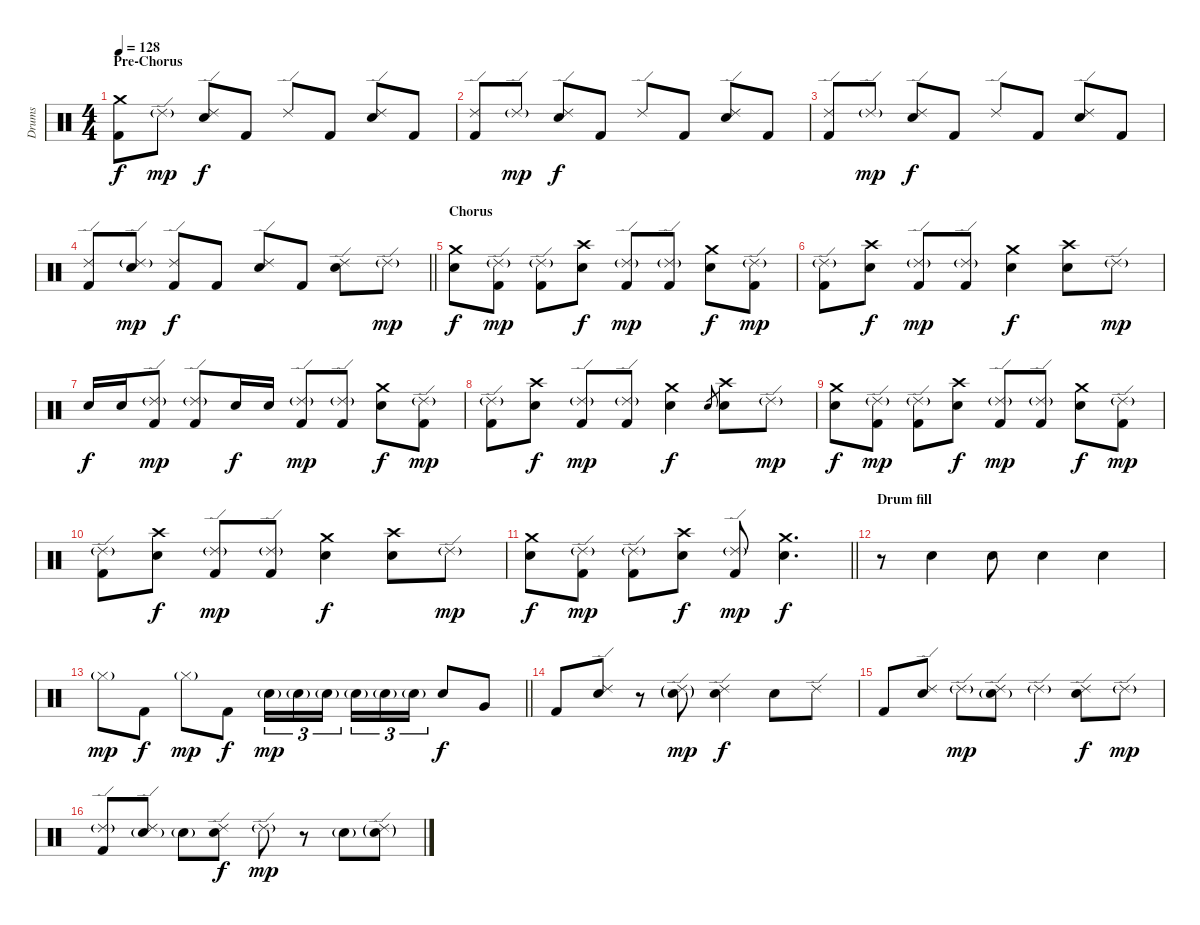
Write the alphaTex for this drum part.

\track ("Drums" "Drums") {instrument percussion}
\staff {score}
\articulation defaults
\ts (4 4)
\section ("" "Pre-Chorus")
\tempo 128
\clef neutral
\ks c
("Crash medium (hit)" "Kick (hit) 2").8{dy f} "Ride (edge) 2"{g}.8{dy mp} ("Ride (edge) 2" "Snare (hit) 2").8{dy f} "Kick (hit) 2".8 "Ride (edge) 2".8 "Kick (hit) 2".8 ("Ride (edge) 2" "Snare (hit) 2").8 "Kick (hit) 2".8 |
("Ride (edge) 2" "Kick (hit) 2").8 "Ride (edge) 2"{g}.8{dy mp} ("Ride (edge) 2" "Snare (hit) 2").8{dy f} "Kick (hit) 2".8 "Ride (edge) 2".8 "Kick (hit) 2".8 ("Ride (edge) 2" "Snare (hit) 2").8 "Kick (hit) 2".8 |
("Ride (edge) 2" "Kick (hit) 2").8 "Ride (edge) 2"{g}.8{dy mp} ("Ride (edge) 2" "Snare (hit) 2").8{dy f} "Kick (hit) 2".8 "Ride (edge) 2".8 "Kick (hit) 2".8 ("Ride (edge) 2" "Snare (hit) 2").8 "Kick (hit) 2".8 |
\barLineRight lightlight
("Ride (edge) 2" "Kick (hit) 2").8 ("Ride (edge) 2"{g} "Snare (hit) 2").8{dy mp} ("Ride (edge) 2" "Kick (hit) 2").8{dy f} "Kick (hit) 2".8 ("Ride (edge) 2" "Snare (hit) 2").8 "Kick (hit) 2".8 ("Ride (edge) 2" "Snare (hit) 2").8 "Ride (edge) 2"{g}.8{dy mp} |
\section ("" "Chorus")
("Crash medium (hit)" "Snare (hit) 2").8{dy f} ("Ride (edge) 2"{g} "Kick (hit) 2").8{dy mp} ("Ride (edge) 2"{g} "Kick (hit) 2").8 ("Crash high (hit)" "Snare (hit) 2").8{dy f} ("Ride (edge) 2"{g} "Kick (hit) 2").8{dy mp} ("Ride (edge) 2"{g} "Kick (hit) 2").8 ("Crash medium (hit)" "Snare (hit) 2").8{dy f} ("Ride (edge) 2"{g} "Kick (hit) 2").8{dy mp} |
("Ride (edge) 2"{g} "Kick (hit) 2").8 ("Crash high (hit)" "Snare (hit) 2").8{dy f} ("Ride (edge) 2"{g} "Kick (hit) 2").8{dy mp} ("Ride (edge) 2"{g} "Kick (hit) 2").8 ("Crash medium (hit)" "Snare (hit) 2").4{dy f} ("Crash high (hit)" "Snare (hit) 2").8 "Ride (edge) 2"{g}.8{dy mp} |
"Snare (hit) 2".16{dy f} "Snare (hit) 2".16 ("Ride (edge) 2"{g} "Kick (hit) 2").8{dy mp} ("Ride (edge) 2"{g} "Kick (hit) 2").8 "Snare (hit) 2".16{dy f} "Snare (hit) 2".16 ("Ride (edge) 2"{g} "Kick (hit) 2").8{dy mp} ("Ride (edge) 2"{g} "Kick (hit) 2").8 ("Crash medium (hit)" "Snare (hit) 2").8{dy f} ("Ride (edge) 2"{g} "Kick (hit) 2").8{dy mp} |
("Ride (edge) 2"{g} "Kick (hit) 2").8 ("Crash high (hit)" "Snare (hit) 2").8{dy f} ("Ride (edge) 2"{g} "Kick (hit) 2").8{dy mp} ("Ride (edge) 2"{g} "Kick (hit) 2").8 ("Crash medium (hit)" "Snare (hit) 2").4{dy f} "Snare (hit) 2".8{gr} ("Crash high (hit)" "Snare (hit) 2").8 "Ride (edge) 2"{g}.8{dy mp} |
("Crash medium (hit)" "Snare (hit) 2").8{dy f} ("Ride (edge) 2"{g} "Kick (hit) 2").8{dy mp} ("Ride (edge) 2"{g} "Kick (hit) 2").8 ("Crash high (hit)" "Snare (hit) 2").8{dy f} ("Ride (edge) 2"{g} "Kick (hit) 2").8{dy mp} ("Ride (edge) 2"{g} "Kick (hit) 2").8 ("Crash medium (hit)" "Snare (hit) 2").8{dy f} ("Ride (edge) 2"{g} "Kick (hit) 2").8{dy mp} |
("Ride (edge) 2"{g} "Kick (hit) 2").8 ("Crash high (hit)" "Snare (hit) 2").8{dy f} ("Ride (edge) 2"{g} "Kick (hit) 2").8{dy mp} ("Ride (edge) 2"{g} "Kick (hit) 2").8 ("Crash medium (hit)" "Snare (hit) 2").4{dy f} ("Crash high (hit)" "Snare (hit) 2").8 "Ride (edge) 2"{g}.8{dy mp} |
\barLineRight lightlight
("Crash medium (hit)" "Snare (hit) 2").8{dy f} ("Ride (edge) 2"{g} "Kick (hit) 2").8{dy mp} ("Ride (edge) 2"{g} "Kick (hit) 2").8 ("Crash high (hit)" "Snare (hit) 2").8{dy f} ("Ride (edge) 2"{g} "Kick (hit) 2").8{dy mp} ("Crash medium (hit)" "Snare (hit) 2").4{d dy f} |
\section ("" "Drum fill")
r.8 "Snare (hit) 2".4 "Snare (hit) 2".8 "Snare (hit) 2".4 "Snare (hit) 2".4 |
\barLineRight lightlight "Hi-Hat (closed)"{g}.8{dy mp} "Kick (hit) 2".8{dy f} "Hi-Hat (closed)"{g}.8{dy mp} "Kick (hit) 2".8{dy f} "Snare (hit) 2"{g}.16{tu (3 2) dy mp} "Snare (hit) 2"{g}.16{tu (3 2)} "Snare (hit) 2"{g}.16{tu (3 2) beam splitsecondary} "Snare (hit) 2"{g}.16{tu (3 2)} "Snare (hit) 2"{g}.16{tu (3 2)} "Snare (hit) 2"{g}.16{tu (3 2)} "Snare (hit) 2".8{dy f} "Very Low Tom (hit)".8
|
"Kick (hit) 2".8 ("Ride (edge) 2" "Snare (hit) 2").8 r.8 ("Ride (edge) 2"{g} "Snare (hit) 2"{g}).8{dy mp} ("Ride (edge) 2" "Snare (hit) 2").4{dy f} "Snare (hit) 2".8 "Ride (edge) 2".8 |
"Kick (hit) 2".8 ("Ride (edge) 2" "Snare (hit) 2").8 "Ride (edge) 2"{g}.8{dy mp} ("Ride (edge) 2" "Snare (hit) 2"{g}).8 "Ride (edge) 2"{g}.4 ("Ride (edge) 2" "Snare (hit) 2").8{dy f} "Ride (edge) 2"{g}.8{dy mp} |
("Ride (edge) 2"{g} "Kick (hit) 2").8 ("Ride (edge) 2" "Snare (hit) 2"{g}).8 "Snare (hit) 2"{g}.8 ("Ride (edge) 2" "Snare (hit) 2").8{dy f} "Ride (edge) 2"{g}.8{dy mp} r.8 "Snare (hit) 2"{g}.8 ("Ride (edge) 2"{g} "Snare (hit) 2"{g}).8
